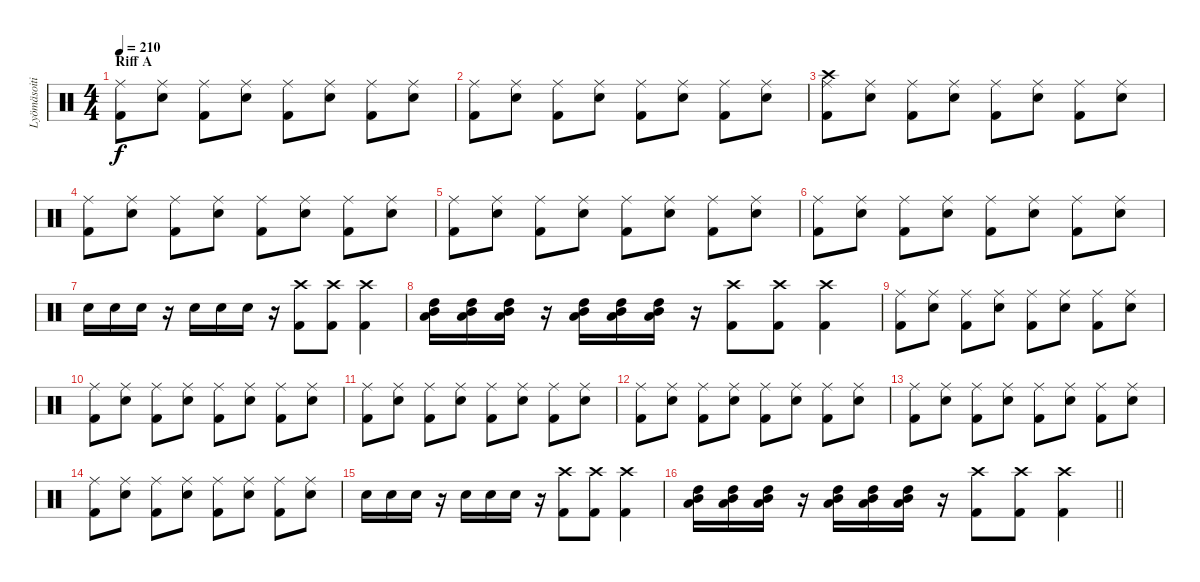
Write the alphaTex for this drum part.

\track ("Lyömäsoitin" "Lyömäsoiti") {instrument percussion}
\staff {score}
\articulation defaults
\ts (4 4)
\section ("" "Riff A")
\tempo 210
\clef neutral
\ks c
("Ride (middle)" "Kick (hit) 2").8{dy f} ("Ride (middle)" "Electric Snare (hit)").8 ("Ride (middle)" "Kick (hit) 2").8 ("Ride (middle)" "Electric Snare (hit)").8 ("Ride (middle)" "Kick (hit) 2").8 ("Ride (middle)" "Electric Snare (hit)").8 ("Ride (middle)" "Kick (hit) 2").8 ("Ride (middle)" "Electric Snare (hit)").8 |
("Ride (middle)" "Kick (hit) 2").8 ("Ride (middle)" "Electric Snare (hit)").8 ("Ride (middle)" "Kick (hit) 2").8 ("Ride (middle)" "Electric Snare (hit)").8 ("Ride (middle)" "Kick (hit) 2").8 ("Ride (middle)" "Electric Snare (hit)").8 ("Ride (middle)" "Kick (hit) 2").8 ("Ride (middle)" "Electric Snare (hit)").8 |
("Crash high (hit)" "Ride (middle)" "Kick (hit) 2").8 ("Ride (middle)" "Electric Snare (hit)").8 ("Ride (middle)" "Kick (hit) 2").8 ("Ride (middle)" "Electric Snare (hit)").8 ("Ride (middle)" "Kick (hit) 2").8 ("Ride (middle)" "Electric Snare (hit)").8 ("Ride (middle)" "Kick (hit) 2").8 ("Ride (middle)" "Electric Snare (hit)").8 |
("Ride (middle)" "Kick (hit) 2").8 ("Ride (middle)" "Electric Snare (hit)").8 ("Ride (middle)" "Kick (hit) 2").8 ("Ride (middle)" "Electric Snare (hit)").8 ("Ride (middle)" "Kick (hit) 2").8 ("Ride (middle)" "Electric Snare (hit)").8 ("Ride (middle)" "Kick (hit) 2").8 ("Ride (middle)" "Electric Snare (hit)").8 |
("Ride (middle)" "Kick (hit) 2").8 ("Ride (middle)" "Electric Snare (hit)").8 ("Ride (middle)" "Kick (hit) 2").8 ("Ride (middle)" "Electric Snare (hit)").8 ("Ride (middle)" "Kick (hit) 2").8 ("Ride (middle)" "Electric Snare (hit)").8 ("Ride (middle)" "Kick (hit) 2").8 ("Ride (middle)" "Electric Snare (hit)").8 |
("Ride (middle)" "Kick (hit) 2").8 ("Ride (middle)" "Electric Snare (hit)").8 ("Ride (middle)" "Kick (hit) 2").8 ("Ride (middle)" "Electric Snare (hit)").8 ("Ride (middle)" "Kick (hit) 2").8 ("Ride (middle)" "Electric Snare (hit)").8 ("Ride (middle)" "Kick (hit) 2").8 ("Ride (middle)" "Electric Snare (hit)").8 |
"Electric Snare (hit)".16 "Electric Snare (hit)".16 "Electric Snare (hit)".16 r.16 "Electric Snare (hit)".16 "Electric Snare (hit)".16 "Electric Snare (hit)".16 r.16 ("Crash high (hit)" "Kick (hit) 2").8 ("Crash high (hit)" "Kick (hit) 2").8 ("Crash high (hit)" "Kick (hit) 2").4 |
("High Tom (hit)" "Mid Tom (hit)" "Low Floor Tom (hit)").16 ("High Tom (hit)" "Mid Tom (hit)" "Low Floor Tom (hit)").16 ("High Tom (hit)" "Mid Tom (hit)" "Low Floor Tom (hit)").16 r.16 ("High Tom (hit)" "Mid Tom (hit)" "Low Floor Tom (hit)").16 ("High Tom (hit)" "Mid Tom (hit)" "Low Floor Tom (hit)").16 ("High Tom (hit)" "Mid Tom (hit)" "Low Floor Tom (hit)").16 r.16 ("Crash high (hit)" "Kick (hit) 2").8 ("Crash high (hit)" "Kick (hit) 2").8 ("Crash high (hit)" "Kick (hit) 2").4 |
("Ride (middle)" "Kick (hit) 2").8 ("Ride (middle)" "Electric Snare (hit)").8 ("Ride (middle)" "Kick (hit) 2").8 ("Ride (middle)" "Electric Snare (hit)").8 ("Ride (middle)" "Kick (hit) 2").8 ("Ride (middle)" "Electric Snare (hit)").8 ("Ride (middle)" "Kick (hit) 2").8 ("Ride (middle)" "Electric Snare (hit)").8 |
("Ride (middle)" "Kick (hit) 2").8 ("Ride (middle)" "Electric Snare (hit)").8 ("Ride (middle)" "Kick (hit) 2").8 ("Ride (middle)" "Electric Snare (hit)").8 ("Ride (middle)" "Kick (hit) 2").8 ("Ride (middle)" "Electric Snare (hit)").8 ("Ride (middle)" "Kick (hit) 2").8 ("Ride (middle)" "Electric Snare (hit)").8 |
("Ride (middle)" "Kick (hit) 2").8 ("Ride (middle)" "Electric Snare (hit)").8 ("Ride (middle)" "Kick (hit) 2").8 ("Ride (middle)" "Electric Snare (hit)").8 ("Ride (middle)" "Kick (hit) 2").8 ("Ride (middle)" "Electric Snare (hit)").8 ("Ride (middle)" "Kick (hit) 2").8 ("Ride (middle)" "Electric Snare (hit)").8 |
("Ride (middle)" "Kick (hit) 2").8 ("Ride (middle)" "Electric Snare (hit)").8 ("Ride (middle)" "Kick (hit) 2").8 ("Ride (middle)" "Electric Snare (hit)").8 ("Ride (middle)" "Kick (hit) 2").8 ("Ride (middle)" "Electric Snare (hit)").8 ("Ride (middle)" "Kick (hit) 2").8 ("Ride (middle)" "Electric Snare (hit)").8 |
("Ride (middle)" "Kick (hit) 2").8 ("Ride (middle)" "Electric Snare (hit)").8 ("Ride (middle)" "Kick (hit) 2").8 ("Ride (middle)" "Electric Snare (hit)").8 ("Ride (middle)" "Kick (hit) 2").8 ("Ride (middle)" "Electric Snare (hit)").8 ("Ride (middle)" "Kick (hit) 2").8 ("Ride (middle)" "Electric Snare (hit)").8 |
("Ride (middle)" "Kick (hit) 2").8 ("Ride (middle)" "Electric Snare (hit)").8 ("Ride (middle)" "Kick (hit) 2").8 ("Ride (middle)" "Electric Snare (hit)").8 ("Ride (middle)" "Kick (hit) 2").8 ("Ride (middle)" "Electric Snare (hit)").8 ("Ride (middle)" "Kick (hit) 2").8 ("Ride (middle)" "Electric Snare (hit)").8 |
"Electric Snare (hit)".16 "Electric Snare (hit)".16 "Electric Snare (hit)".16 r.16 "Electric Snare (hit)".16 "Electric Snare (hit)".16 "Electric Snare (hit)".16 r.16 ("Crash high (hit)" "Kick (hit) 2").8 ("Crash high (hit)" "Kick (hit) 2").8 ("Crash high (hit)" "Kick (hit) 2").4 |
\barLineRight lightlight
("High Tom (hit)" "Mid Tom (hit)" "Low Floor Tom (hit)").16 ("High Tom (hit)" "Mid Tom (hit)" "Low Floor Tom (hit)").16 ("High Tom (hit)" "Mid Tom (hit)" "Low Floor Tom (hit)").16 r.16 ("High Tom (hit)" "Mid Tom (hit)" "Low Floor Tom (hit)").16 ("High Tom (hit)" "Mid Tom (hit)" "Low Floor Tom (hit)").16 ("High Tom (hit)" "Mid Tom (hit)" "Low Floor Tom (hit)").16 r.16 ("Crash high (hit)" "Kick (hit) 2").8 ("Crash high (hit)" "Kick (hit) 2").8 ("Crash high (hit)" "Kick (hit) 2").4
